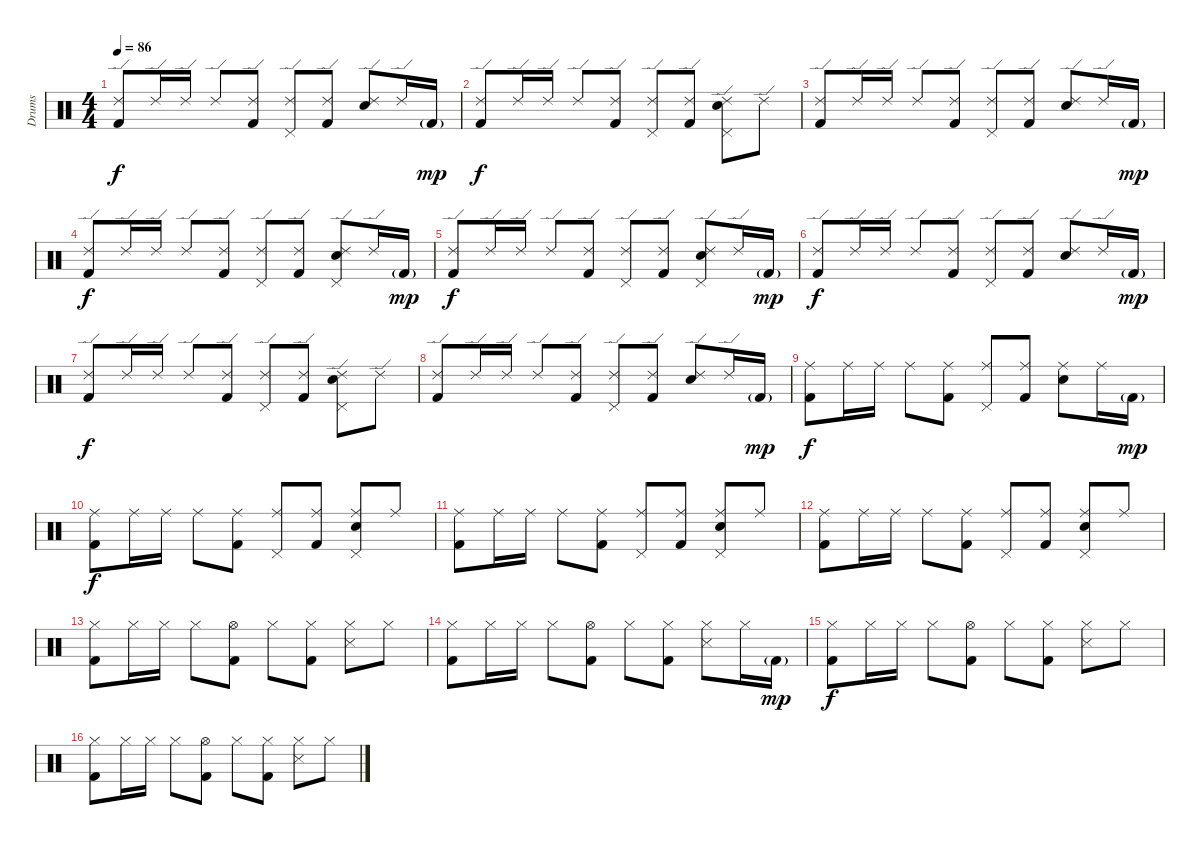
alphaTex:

\track ("Drums" "Drums") {instrument percussion}
\staff {score}
\articulation defaults
\ts (4 4)
\tempo 86
\clef neutral
\ks c
("Ride (edge) 2" "Kick (hit) 2").8{dy f} "Ride (edge) 2".16 "Ride (edge) 2".16 "Ride (edge) 2".8 ("Ride (edge) 2" "Kick (hit) 2").8 ("Ride (edge) 2" "Pedal Hi-Hat (hit)").8 ("Ride (edge) 2" "Kick (hit) 2").8 ("Ride (edge) 2" "Snare (hit) 2").8 "Ride (edge) 2".16 "Kick (hit) 2"{g}.16{dy mp} |
("Ride (edge) 2" "Kick (hit) 2").8{dy f} "Ride (edge) 2".16 "Ride (edge) 2".16 "Ride (edge) 2".8 ("Ride (edge) 2" "Kick (hit) 2").8 ("Ride (edge) 2" "Pedal Hi-Hat (hit)").8 ("Ride (edge) 2" "Kick (hit) 2").8 ("Ride (edge) 2" "Pedal Hi-Hat (hit)" "Snare (hit) 2").8 "Ride (edge) 2".8 |
("Ride (edge) 2" "Kick (hit) 2").8 "Ride (edge) 2".16 "Ride (edge) 2".16 "Ride (edge) 2".8 ("Ride (edge) 2" "Kick (hit) 2").8 ("Ride (edge) 2" "Pedal Hi-Hat (hit)").8 ("Ride (edge) 2" "Kick (hit) 2").8 ("Ride (edge) 2" "Snare (hit) 2").8 "Ride (edge) 2".16 "Kick (hit) 2"{g}.16{dy mp} |
("Ride (edge) 2" "Kick (hit) 2").8{dy f} "Ride (edge) 2".16 "Ride (edge) 2".16 "Ride (edge) 2".8 ("Ride (edge) 2" "Kick (hit) 2").8 ("Ride (edge) 2" "Pedal Hi-Hat (hit)").8 ("Ride (edge) 2" "Kick (hit) 2").8 ("Ride (edge) 2" "Pedal Hi-Hat (hit)" "Snare (hit) 2").8 "Ride (edge) 2".16 "Kick (hit) 2"{g}.16{dy mp} |
("Ride (edge) 2" "Kick (hit) 2").8{dy f} "Ride (edge) 2".16 "Ride (edge) 2".16 "Ride (edge) 2".8 ("Ride (edge) 2" "Kick (hit) 2").8 ("Ride (edge) 2" "Pedal Hi-Hat (hit)").8 ("Ride (edge) 2" "Kick (hit) 2").8 ("Ride (edge) 2" "Pedal Hi-Hat (hit)" "Snare (hit) 2").8 "Ride (edge) 2".16 "Kick (hit) 2"{g}.16{dy mp} |
("Ride (edge) 2" "Kick (hit) 2").8{dy f} "Ride (edge) 2".16 "Ride (edge) 2".16 "Ride (edge) 2".8 ("Ride (edge) 2" "Kick (hit) 2").8 ("Ride (edge) 2" "Pedal Hi-Hat (hit)").8 ("Ride (edge) 2" "Kick (hit) 2").8 ("Ride (edge) 2" "Snare (hit) 2").8 "Ride (edge) 2".16 "Kick (hit) 2"{g}.16{dy mp} |
("Ride (edge) 2" "Kick (hit) 2").8{dy f} "Ride (edge) 2".16 "Ride (edge) 2".16 "Ride (edge) 2".8 ("Ride (edge) 2" "Kick (hit) 2").8 ("Ride (edge) 2" "Pedal Hi-Hat (hit)").8 ("Ride (edge) 2" "Kick (hit) 2").8 ("Ride (edge) 2" "Pedal Hi-Hat (hit)" "Snare (hit) 2").8 "Ride (edge) 2".8 |
("Ride (edge) 2" "Kick (hit) 2").8 "Ride (edge) 2".16 "Ride (edge) 2".16 "Ride (edge) 2".8 ("Ride (edge) 2" "Kick (hit) 2").8 ("Ride (edge) 2" "Pedal Hi-Hat (hit)").8 ("Ride (edge) 2" "Kick (hit) 2").8 ("Ride (edge) 2" "Snare (hit) 2").8 "Ride (edge) 2".16 "Kick (hit) 2"{g}.16{dy mp} |
("Ride (middle)" "Kick (hit) 2").8{dy f} "Ride (middle)".16 "Ride (middle)".16 "Ride (middle)".8 ("Ride (middle)" "Kick (hit) 2").8 ("Ride (middle)" "Pedal Hi-Hat (hit)").8 ("Ride (middle)" "Kick (hit) 2").8 ("Ride (middle)" "Snare (hit) 2").8 "Ride (middle)".16 "Kick (hit) 2"{g}.16{dy mp} |
("Ride (middle)" "Kick (hit) 2").8{dy f} "Ride (middle)".16 "Ride (middle)".16 "Ride (middle)".8 ("Ride (middle)" "Kick (hit) 2").8 ("Ride (middle)" "Pedal Hi-Hat (hit)").8 ("Ride (middle)" "Kick (hit) 2").8 ("Ride (middle)" "Pedal Hi-Hat (hit)" "Snare (hit) 2").8 "Ride (middle)".8 |
("Ride (middle)" "Kick (hit) 2").8 "Ride (middle)".16 "Ride (middle)".16 "Ride (middle)".8 ("Ride (middle)" "Kick (hit) 2").8 ("Ride (middle)" "Pedal Hi-Hat (hit)").8 ("Ride (middle)" "Kick (hit) 2").8 ("Ride (middle)" "Pedal Hi-Hat (hit)" "Snare (hit) 2").8 "Ride (middle)".8 |
("Ride (middle)" "Kick (hit) 2").8 "Ride (middle)".16 "Ride (middle)".16 "Ride (middle)".8 ("Ride (middle)" "Kick (hit) 2").8 ("Ride (middle)" "Pedal Hi-Hat (hit)").8 ("Ride (middle)" "Kick (hit) 2").8 ("Ride (middle)" "Pedal Hi-Hat (hit)" "Snare (hit) 2").8 "Ride (middle)".8 |
("Hi-Hat (closed)" "Kick (hit) 2").8 "Hi-Hat (closed)".16 "Hi-Hat (closed)".16 "Hi-Hat (closed)".8 ("Hi-Hat (open)" "Kick (hit) 2").8 "Hi-Hat (closed)".8 ("Hi-Hat (closed)" "Kick (hit) 2").8 ("Hi-Hat (closed)" "Snare (side stick) 3").8 "Hi-Hat (closed)".8 |
("Hi-Hat (closed)" "Kick (hit) 2").8 "Hi-Hat (closed)".16 "Hi-Hat (closed)".16 "Hi-Hat (closed)".8 ("Hi-Hat (open)" "Kick (hit) 2").8 "Hi-Hat (closed)".8 ("Hi-Hat (closed)" "Kick (hit) 2").8 ("Hi-Hat (closed)" "Snare (side stick) 3").8 "Hi-Hat (closed)".16 "Kick (hit) 2"{g}.16{dy mp} |
("Hi-Hat (closed)" "Kick (hit) 2").8{dy f} "Hi-Hat (closed)".16 "Hi-Hat (closed)".16 "Hi-Hat (closed)".8 ("Hi-Hat (open)" "Kick (hit) 2").8 "Hi-Hat (closed)".8 ("Hi-Hat (closed)" "Kick (hit) 2").8 ("Hi-Hat (closed)" "Snare (side stick) 3").8 "Hi-Hat (closed)".8 |
("Hi-Hat (closed)" "Kick (hit) 2").8 "Hi-Hat (closed)".16 "Hi-Hat (closed)".16 "Hi-Hat (closed)".8 ("Hi-Hat (open)" "Kick (hit) 2").8 "Hi-Hat (closed)".8 ("Hi-Hat (closed)" "Kick (hit) 2").8 ("Hi-Hat (closed)" "Snare (side stick) 3").8 "Hi-Hat (closed)".8
